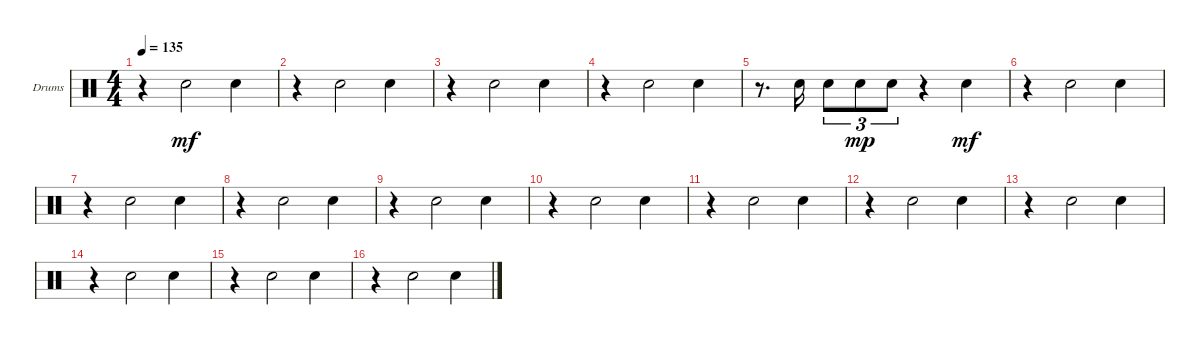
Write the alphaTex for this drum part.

\bracketExtendMode groupsimilarinstruments
\firstSystemTrackNameOrientation horizontal
\otherSystemsTrackNameOrientation horizontal
\track ("Snare" "Drums") {instrument percussion}
\staff {score}
\articulation defaults
\ts (4 4)
\tempo 135
\clef neutral
\ks c
r.4{dy mf} "Snare (hit) 2".2 "Snare (hit) 2".4 |
r.4 "Snare (hit) 2".2 "Snare (hit) 2".4 |
r.4 "Snare (hit) 2".2 "Snare (hit) 2".4 |
r.4 "Snare (hit) 2".2 "Snare (hit) 2".4 |
r.8{d} "Snare (hit) 2".16 "Snare (hit) 2".8{tu (3 2)} "Snare (hit) 2".8{tu (3 2) dy mp} "Snare (hit) 2".8{tu (3 2)} r.4 "Snare (hit) 2".4{dy mf} |
r.4 "Snare (hit) 2".2 "Snare (hit) 2".4 |
r.4 "Snare (hit) 2".2 "Snare (hit) 2".4 |
r.4 "Snare (hit) 2".2 "Snare (hit) 2".4 |
r.4 "Snare (hit) 2".2 "Snare (hit) 2".4 |
r.4 "Snare (hit) 2".2 "Snare (hit) 2".4 |
r.4 "Snare (hit) 2".2 "Snare (hit) 2".4 |
r.4 "Snare (hit) 2".2 "Snare (hit) 2".4 |
r.4 "Snare (hit) 2".2 "Snare (hit) 2".4 |
r.4 "Snare (hit) 2".2 "Snare (hit) 2".4 |
r.4 "Snare (hit) 2".2 "Snare (hit) 2".4 |
r.4 "Snare (hit) 2".2 "Snare (hit) 2".4
